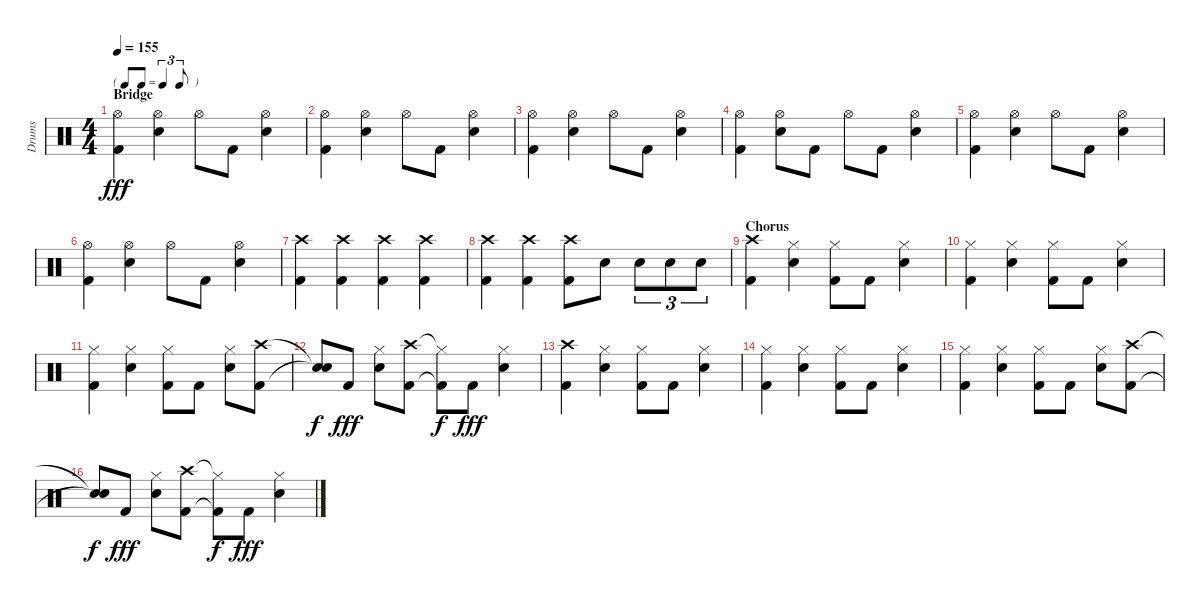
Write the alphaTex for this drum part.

\track ("Drums" "Drums") {instrument percussion}
\staff {score}
\articulation defaults
\ts (4 4)
\tf triplet8th
\section ("" "Bridge")
\tempo 155
\clef neutral
\ks c
("Hi-Hat (open)" "Kick (hit) 2").4{dy fff} ("Hi-Hat (open)" "Snare (hit) 2").4 "Hi-Hat (open)".8 "Kick (hit) 2".8 ("Hi-Hat (open)" "Snare (hit) 2").4 |
("Hi-Hat (open)" "Kick (hit) 2").4 ("Hi-Hat (open)" "Snare (hit) 2").4 "Hi-Hat (open)".8 "Kick (hit) 2".8 ("Hi-Hat (open)" "Snare (hit) 2").4 |
("Hi-Hat (open)" "Kick (hit) 2").4 ("Hi-Hat (open)" "Snare (hit) 2").4 "Hi-Hat (open)".8 "Kick (hit) 2".8 ("Hi-Hat (open)" "Snare (hit) 2").4 |
("Hi-Hat (open)" "Kick (hit) 2").4 ("Hi-Hat (open)" "Snare (hit) 2").8 "Kick (hit) 2".8 "Hi-Hat (open)".8 "Kick (hit) 2".8 ("Hi-Hat (open)" "Snare (hit) 2").4 |
("Hi-Hat (open)" "Kick (hit) 2").4 ("Hi-Hat (open)" "Snare (hit) 2").4 "Hi-Hat (open)".8 "Kick (hit) 2".8 ("Hi-Hat (open)" "Snare (hit) 2").4 |
("Hi-Hat (open)" "Kick (hit) 2").4 ("Hi-Hat (open)" "Snare (hit) 2").4 "Hi-Hat (open)".8 "Kick (hit) 2".8 ("Hi-Hat (open)" "Snare (hit) 2").4 |
("Crash high (hit)" "Kick (hit) 2").4 ("Crash high (hit)" "Kick (hit) 2").4 ("Crash high (hit)" "Kick (hit) 2").4 ("Crash high (hit)" "Kick (hit) 2").4 |
("Crash high (hit)" "Kick (hit) 2").4 ("Crash high (hit)" "Kick (hit) 2").4 ("Crash high (hit)" "Kick (hit) 2").8 "Snare (hit) 2".8 "Snare (hit) 2".8{tu (3 2)} "Snare (hit) 2".8{tu (3 2)} "Snare (hit) 2".8{tu (3 2)} |
\section ("" "Chorus")
("Crash high (hit)" "Kick (hit) 2").4 ("Hi-Hat (closed)" "Snare (hit) 2").4 ("Hi-Hat (closed)" "Kick (hit) 2").8 "Kick (hit) 2".8 ("Hi-Hat (closed)" "Snare (hit) 2").4 |
("Hi-Hat (closed)" "Kick (hit) 2").4 ("Hi-Hat (closed)" "Snare (hit) 2").4 ("Hi-Hat (closed)" "Kick (hit) 2").8 "Kick (hit) 2".8 ("Hi-Hat (closed)" "Snare (hit) 2").4 |
("Hi-Hat (closed)" "Kick (hit) 2").4 ("Hi-Hat (closed)" "Snare (hit) 2").4 ("Hi-Hat (closed)" "Kick (hit) 2").8 "Kick (hit) 2".8 ("Hi-Hat (closed)" "Snare (hit) 2").8 ("Crash high (hit)" "Kick (hit) 2").8 |
("Snare (hit)"{t} "Snare (hit)"{t}).8{dy f} "Kick (hit) 2".8{dy fff} ("Hi-Hat (closed)" "Snare (hit) 2").8 ("Crash high (hit)" "Kick (hit) 2").8 ("Hi-Hat (closed)"{t} "Kick (hit) 2"{t}).8{dy f} "Kick (hit) 2".8{dy fff} ("Hi-Hat (closed)" "Snare (hit) 2").4 |
("Crash high (hit)" "Kick (hit) 2").4 ("Hi-Hat (closed)" "Snare (hit) 2").4 ("Hi-Hat (closed)" "Kick (hit) 2").8 "Kick (hit) 2".8 ("Hi-Hat (closed)" "Snare (hit) 2").4 |
("Hi-Hat (closed)" "Kick (hit) 2").4 ("Hi-Hat (closed)" "Snare (hit) 2").4 ("Hi-Hat (closed)" "Kick (hit) 2").8 "Kick (hit) 2".8 ("Hi-Hat (closed)" "Snare (hit) 2").4 |
("Hi-Hat (closed)" "Kick (hit) 2").4 ("Hi-Hat (closed)" "Snare (hit) 2").4 ("Hi-Hat (closed)" "Kick (hit) 2").8 "Kick (hit) 2".8 ("Hi-Hat (closed)" "Snare (hit) 2").8 ("Crash high (hit)" "Kick (hit) 2").8 |
("Snare (hit)"{t} "Snare (hit)"{t}).8{dy f} "Kick (hit) 2".8{dy fff} ("Hi-Hat (closed)" "Snare (hit) 2").8 ("Crash high (hit)" "Kick (hit) 2").8 ("Hi-Hat (closed)"{t} "Kick (hit) 2"{t}).8{dy f} "Kick (hit) 2".8{dy fff} ("Hi-Hat (closed)" "Snare (hit) 2").4
